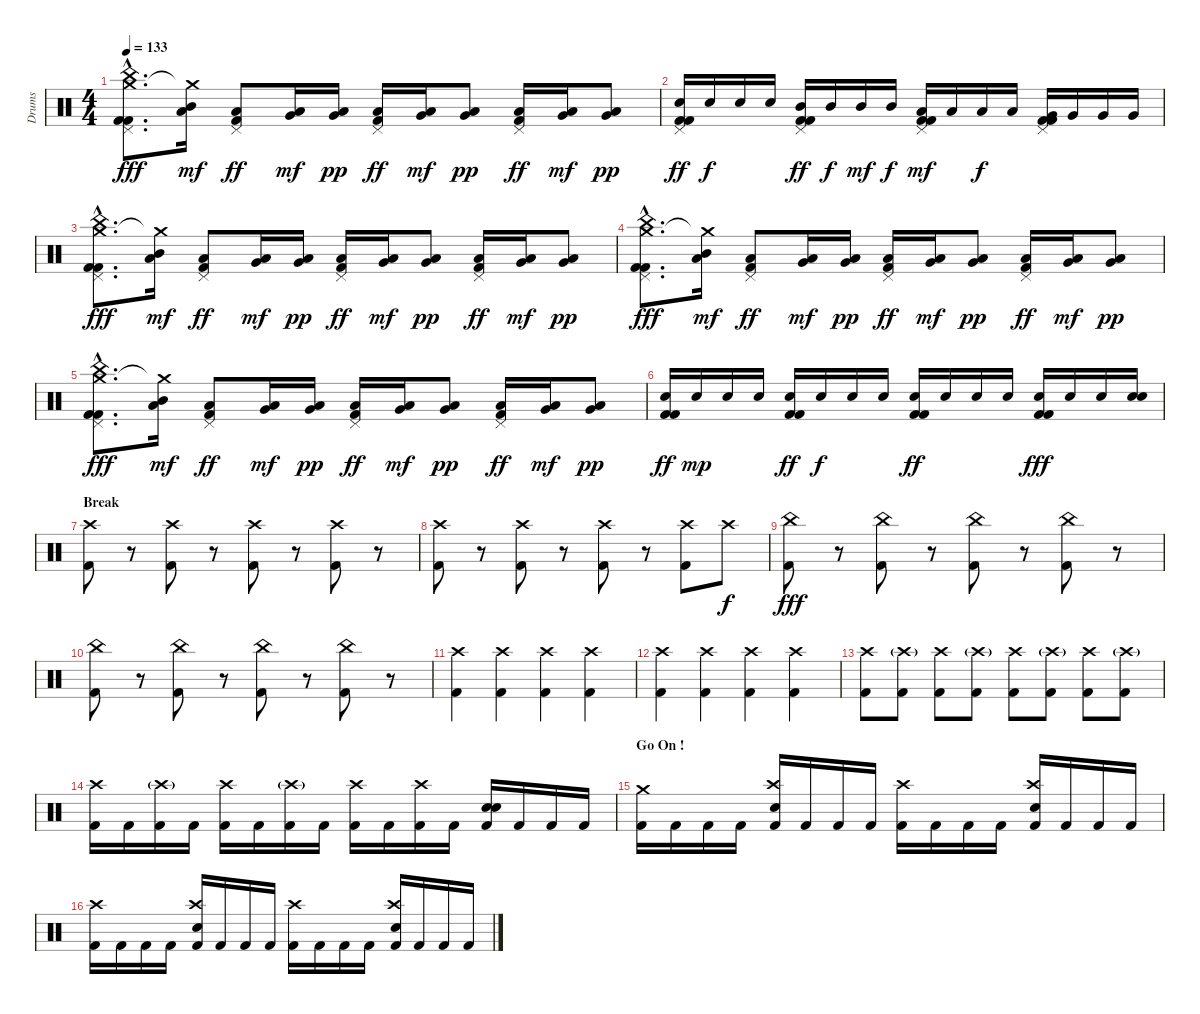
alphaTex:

\track ("Drums" "Drums") {instrument percussion}
\staff {score}
\articulation defaults
\ts (4 4)
\tempo 133
\clef neutral
\ks c
("Crash medium (hit)"{hac} "China (hit)"{hac} "Pedal Hi-Hat (hit)"{hac} "Kick (hit) 2"{hac} "Kick (hit) 2"{hac}).8{d dy fff} ("Crash medium (hit)"{t} "Mid Tom (hit)" "Low Tom (hit)").16{dy mf} ("Pedal Hi-Hat (hit)" "Low Tom (hit)" "Kick (hit) 2").8{dy ff} ("Low Tom (hit)" "Very Low Tom (hit)").16{dy mf} ("Low Tom (hit)" "Very Low Tom (hit)").16{dy pp} ("Pedal Hi-Hat (hit)" "Low Tom (hit)" "Kick (hit) 2").16{dy ff} ("Low Tom (hit)" "Very Low Tom (hit)").16{dy mf} ("Low Tom (hit)" "Very Low Tom (hit)").8{dy pp} ("Pedal Hi-Hat (hit)" "Low Tom (hit)" "Kick (hit) 2").16{dy ff} ("Low Tom (hit)" "Very Low Tom (hit)").16{dy mf} ("Low Tom (hit)" "Very Low Tom (hit)").8{dy pp} |
("Pedal Hi-Hat (hit)" "Electric Snare (hit)" "Kick (hit) 2" "Kick (hit) 2").16{dy ff} "Electric Snare (hit)".16{dy f} "Electric Snare (hit)".16 "Electric Snare (hit)".16 ("Pedal Hi-Hat (hit)" "Mid Tom (hit)" "Kick (hit) 2" "Kick (hit) 2").16{dy ff} "Mid Tom (hit)".16{dy f} "Mid Tom (hit)".16{dy mf} "Mid Tom (hit)".16{dy f} ("Pedal Hi-Hat (hit)" "Low Tom (hit)" "Kick (hit) 2" "Kick (hit) 2").16{dy mf} "Low Tom (hit)".16 "Low Tom (hit)".16{dy f} "Low Tom (hit)".16 ("Pedal Hi-Hat (hit)" "Very Low Tom (hit)" "Kick (hit) 2" "Kick (hit) 2").16 "Very Low Tom (hit)".16 "Very Low Tom (hit)".16 "Very Low Tom (hit)".16 |
("Crash medium (hit)"{hac} "China (hit)"{hac} "Pedal Hi-Hat (hit)"{hac} "Kick (hit) 2"{hac} "Kick (hit) 2"{hac}).8{d dy fff} ("Crash medium (hit)"{t} "Mid Tom (hit)" "Low Tom (hit)").16{dy mf} ("Pedal Hi-Hat (hit)" "Low Tom (hit)" "Kick (hit) 2").8{dy ff} ("Low Tom (hit)" "Very Low Tom (hit)").16{dy mf} ("Low Tom (hit)" "Very Low Tom (hit)").16{dy pp} ("Pedal Hi-Hat (hit)" "Low Tom (hit)" "Kick (hit) 2").16{dy ff} ("Low Tom (hit)" "Very Low Tom (hit)").16{dy mf} ("Low Tom (hit)" "Very Low Tom (hit)").8{dy pp} ("Pedal Hi-Hat (hit)" "Low Tom (hit)" "Kick (hit) 2").16{dy ff} ("Low Tom (hit)" "Very Low Tom (hit)").16{dy mf} ("Low Tom (hit)" "Very Low Tom (hit)").8{dy pp} |
("Crash medium (hit)"{hac} "China (hit)"{hac} "Pedal Hi-Hat (hit)"{hac} "Kick (hit) 2"{hac} "Kick (hit) 2"{hac}).8{d dy fff} ("Crash medium (hit)"{t} "Mid Tom (hit)" "Low Tom (hit)").16{dy mf} ("Pedal Hi-Hat (hit)" "Low Tom (hit)" "Kick (hit) 2").8{dy ff} ("Low Tom (hit)" "Very Low Tom (hit)").16{dy mf} ("Low Tom (hit)" "Very Low Tom (hit)").16{dy pp} ("Pedal Hi-Hat (hit)" "Low Tom (hit)" "Kick (hit) 2").16{dy ff} ("Low Tom (hit)" "Very Low Tom (hit)").16{dy mf} ("Low Tom (hit)" "Very Low Tom (hit)").8{dy pp} ("Pedal Hi-Hat (hit)" "Low Tom (hit)" "Kick (hit) 2").16{dy ff} ("Low Tom (hit)" "Very Low Tom (hit)").16{dy mf} ("Low Tom (hit)" "Very Low Tom (hit)").8{dy pp} |
("Crash medium (hit)"{hac} "China (hit)"{hac} "Pedal Hi-Hat (hit)"{hac} "Kick (hit) 2"{hac} "Kick (hit) 2"{hac}).8{d dy fff} ("Crash medium (hit)"{t} "Mid Tom (hit)" "Low Tom (hit)").16{dy mf} ("Pedal Hi-Hat (hit)" "Low Tom (hit)" "Kick (hit) 2").8{dy ff} ("Low Tom (hit)" "Very Low Tom (hit)").16{dy mf} ("Low Tom (hit)" "Very Low Tom (hit)").16{dy pp} ("Pedal Hi-Hat (hit)" "Low Tom (hit)" "Kick (hit) 2").16{dy ff} ("Low Tom (hit)" "Very Low Tom (hit)").16{dy mf} ("Low Tom (hit)" "Very Low Tom (hit)").8{dy pp} ("Pedal Hi-Hat (hit)" "Low Tom (hit)" "Kick (hit) 2").16{dy ff} ("Low Tom (hit)" "Very Low Tom (hit)").16{dy mf} ("Low Tom (hit)" "Very Low Tom (hit)").8{dy pp} |
("Electric Snare (hit)" "Kick (hit) 2" "Kick (hit) 2").16{dy ff} "Electric Snare (hit)".16{dy mp} "Electric Snare (hit)".16 "Electric Snare (hit)".16 ("Electric Snare (hit)" "Kick (hit) 2" "Kick (hit) 2").16{dy ff} "Electric Snare (hit)".16{dy f} "Electric Snare (hit)".16 "Electric Snare (hit)".16 ("Electric Snare (hit)" "Kick (hit) 2" "Kick (hit) 2").16{dy ff} "Electric Snare (hit)".16 "Electric Snare (hit)".16 "Electric Snare (hit)".16 ("Electric Snare (hit)" "Kick (hit) 2" "Kick (hit) 2").16{dy fff} "Electric Snare (hit)".16 "Electric Snare (hit)".16 ("Electric Snare (hit)" "Electric Snare (hit)").16 |
\section ("" "Break")
("Crash high (hit)" "Kick (hit) 2").8 r.8{volume 0} ("Crash high (hit)" "Kick (hit) 2").8{volume 16} r.8{volume 0} ("Crash high (hit)" "Kick (hit) 2").8{volume 16} r.8{volume 0} ("Crash high (hit)" "Kick (hit) 2").8{volume 16} r.8{volume 0} |
("Crash high (hit)" "Kick (hit) 2").8{volume 16} r.8{volume 0} ("Crash high (hit)" "Kick (hit) 2").8{volume 16} r.8{volume 0} ("Crash high (hit)" "Kick (hit) 2").8{volume 16} r.8{volume 0} ("Crash high (hit)" "Kick (hit) 2").8{volume 16} "Crash high (hit)".8{dy f} |
("China (hit)" "Kick (hit) 2").8{dy fff volume 16} r.8{volume 0} ("China (hit)" "Kick (hit) 2").8{volume 16} r.8{volume 0} ("China (hit)" "Kick (hit) 2").8{volume 16} r.8{volume 0} ("China (hit)" "Kick (hit) 2").8{volume 16} r.8{volume 0} |
("China (hit)" "Kick (hit) 2").8{volume 16} r.8{volume 0} ("China (hit)" "Kick (hit) 2").8{volume 16} r.8{volume 0} ("China (hit)" "Kick (hit) 2").8{volume 16} r.8{volume 0} ("China (hit)" "Kick (hit) 2").8{volume 16} r.8 |
("Crash high (hit)" "Kick (hit) 2").4 ("Crash high (hit)" "Kick (hit) 2").4 ("Crash high (hit)" "Kick (hit) 2").4 ("Crash high (hit)" "Kick (hit) 2").4 |
("Crash high (hit)" "Kick (hit) 2").4 ("Crash high (hit)" "Kick (hit) 2").4 ("Crash high (hit)" "Kick (hit) 2").4 ("Crash high (hit)" "Kick (hit) 2").4 |
("Crash high (hit)" "Kick (hit) 2").8 ("Crash high (hit)"{g} "Kick (hit) 2").8 ("Crash high (hit)" "Kick (hit) 2").8 ("Crash high (hit)"{g} "Kick (hit) 2").8 ("Crash high (hit)" "Kick (hit) 2").8 ("Crash high (hit)"{g} "Kick (hit) 2").8 ("Crash high (hit)" "Kick (hit) 2").8 ("Crash high (hit)"{g} "Kick (hit) 2").8 |
("Crash high (hit)" "Kick (hit) 2").16 "Kick (hit) 2".16 ("Crash high (hit)"{g} "Kick (hit) 2").16 "Kick (hit) 2".16 ("Crash high (hit)" "Kick (hit) 2").16 "Kick (hit) 2".16 ("Crash high (hit)"{g} "Kick (hit) 2").16 "Kick (hit) 2".16 ("Crash high (hit)" "Kick (hit) 2").16 "Kick (hit) 2".16 ("Crash high (hit)" "Kick (hit) 2").16 "Kick (hit) 2".16 ("Snare (hit) 2" "Snare (hit) 2" "Kick (hit) 2").16{bd 240} "Kick (hit) 2".16 "Kick (hit) 2".16 "Kick (hit) 2".16 |
\section ("" "Go On !")
("Crash medium (hit)" "Kick (hit) 2").16 "Kick (hit) 2".16 "Kick (hit) 2".16 "Kick (hit) 2".16 ("Crash high (hit)" "Snare (hit) 2" "Kick (hit) 2").16 "Kick (hit) 2".16 "Kick (hit) 2".16 "Kick (hit) 2".16 ("Crash high (hit)" "Kick (hit) 2").16 "Kick (hit) 2".16 "Kick (hit) 2".16 "Kick (hit) 2".16 ("Crash high (hit)" "Snare (hit) 2" "Kick (hit) 2").16 "Kick (hit) 2".16 "Kick (hit) 2".16 "Kick (hit) 2".16 |
("Crash high (hit)" "Kick (hit) 2").16 "Kick (hit) 2".16 "Kick (hit) 2".16 "Kick (hit) 2".16 ("Crash high (hit)" "Snare (hit) 2" "Kick (hit) 2").16 "Kick (hit) 2".16 "Kick (hit) 2".16 "Kick (hit) 2".16 ("Crash high (hit)" "Kick (hit) 2").16 "Kick (hit) 2".16 "Kick (hit) 2".16 "Kick (hit) 2".16 ("Crash high (hit)" "Snare (hit) 2" "Kick (hit) 2").16 "Kick (hit) 2".16 "Kick (hit) 2".16 "Kick (hit) 2".16
